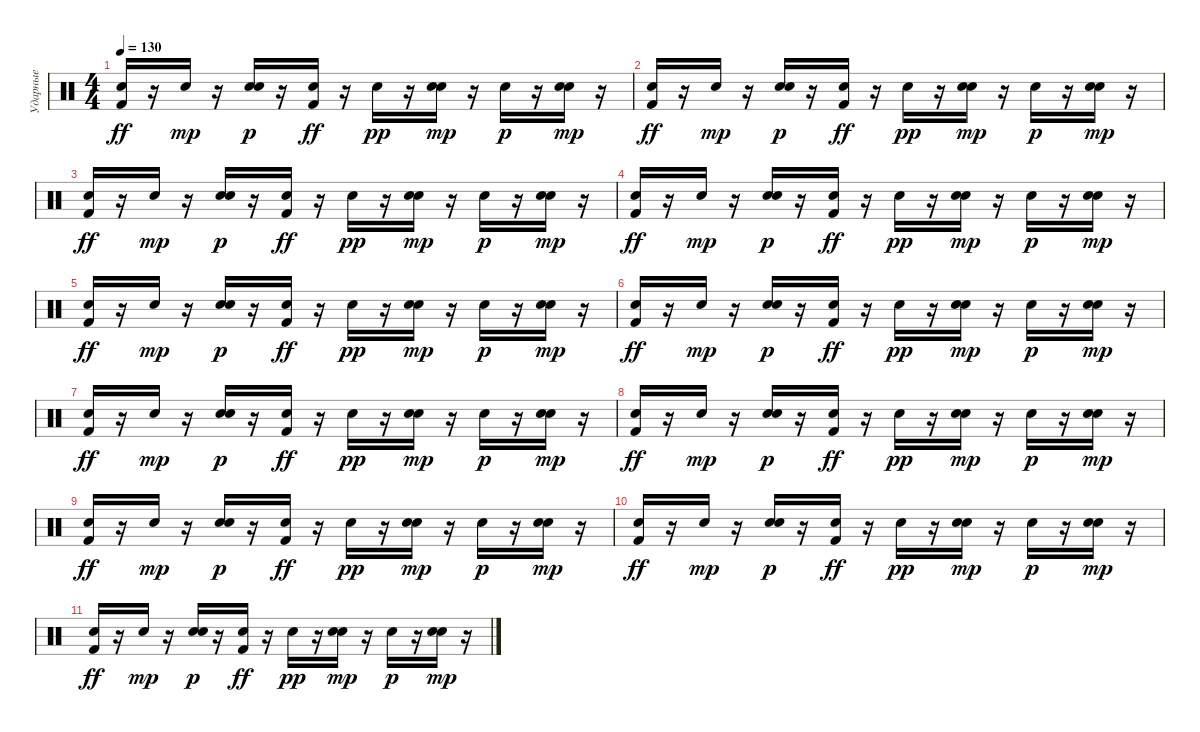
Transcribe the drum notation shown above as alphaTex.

\track ("Ударные" "Ударные") {instrument percussion}
\staff {score}
\articulation defaults
\ts (4 4)
\tempo 130
\clef neutral
\ks c
("Hand Clap (hit)" "Kick (hit) 2").16{dy ff} r.16 "Hand Clap (hit)".16{dy mp} r.16 ("Hand Clap (hit)" "Electric Snare (hit)").16{dy p} r.16 ("Hand Clap (hit)" "Kick (hit) 2").16{dy ff} r.16 "Hand Clap (hit)".16{dy pp} r.16 ("Hand Clap (hit)" "Electric Snare (hit)").16{dy mp} r.16 "Hand Clap (hit)".16{dy p} r.16 ("Hand Clap (hit)" "Electric Snare (hit)").16{dy mp} r.16 |
("Hand Clap (hit)" "Kick (hit) 2").16{dy ff} r.16 "Hand Clap (hit)".16{dy mp} r.16 ("Hand Clap (hit)" "Electric Snare (hit)").16{dy p} r.16 ("Hand Clap (hit)" "Kick (hit) 2").16{dy ff} r.16 "Hand Clap (hit)".16{dy pp} r.16 ("Hand Clap (hit)" "Electric Snare (hit)").16{dy mp} r.16 "Hand Clap (hit)".16{dy p} r.16 ("Hand Clap (hit)" "Electric Snare (hit)").16{dy mp} r.16 |
("Hand Clap (hit)" "Kick (hit) 2").16{dy ff} r.16 "Hand Clap (hit)".16{dy mp} r.16 ("Hand Clap (hit)" "Electric Snare (hit)").16{dy p} r.16 ("Hand Clap (hit)" "Kick (hit) 2").16{dy ff} r.16 "Hand Clap (hit)".16{dy pp} r.16 ("Hand Clap (hit)" "Electric Snare (hit)").16{dy mp} r.16 "Hand Clap (hit)".16{dy p} r.16 ("Hand Clap (hit)" "Electric Snare (hit)").16{dy mp} r.16 |
("Hand Clap (hit)" "Kick (hit) 2").16{dy ff} r.16 "Hand Clap (hit)".16{dy mp} r.16 ("Hand Clap (hit)" "Electric Snare (hit)").16{dy p} r.16 ("Hand Clap (hit)" "Kick (hit) 2").16{dy ff} r.16 "Hand Clap (hit)".16{dy pp} r.16 ("Hand Clap (hit)" "Electric Snare (hit)").16{dy mp} r.16 "Hand Clap (hit)".16{dy p} r.16 ("Hand Clap (hit)" "Electric Snare (hit)").16{dy mp} r.16 |
("Hand Clap (hit)" "Kick (hit) 2").16{dy ff} r.16 "Hand Clap (hit)".16{dy mp} r.16 ("Hand Clap (hit)" "Electric Snare (hit)").16{dy p} r.16 ("Hand Clap (hit)" "Kick (hit) 2").16{dy ff} r.16 "Hand Clap (hit)".16{dy pp} r.16 ("Hand Clap (hit)" "Electric Snare (hit)").16{dy mp} r.16 "Hand Clap (hit)".16{dy p} r.16 ("Hand Clap (hit)" "Electric Snare (hit)").16{dy mp} r.16 |
("Hand Clap (hit)" "Kick (hit) 2").16{dy ff} r.16 "Hand Clap (hit)".16{dy mp} r.16 ("Hand Clap (hit)" "Electric Snare (hit)").16{dy p} r.16 ("Hand Clap (hit)" "Kick (hit) 2").16{dy ff} r.16 "Hand Clap (hit)".16{dy pp} r.16 ("Hand Clap (hit)" "Electric Snare (hit)").16{dy mp} r.16 "Hand Clap (hit)".16{dy p} r.16 ("Hand Clap (hit)" "Electric Snare (hit)").16{dy mp} r.16 |
("Hand Clap (hit)" "Kick (hit) 2").16{dy ff} r.16 "Hand Clap (hit)".16{dy mp} r.16 ("Hand Clap (hit)" "Electric Snare (hit)").16{dy p} r.16 ("Hand Clap (hit)" "Kick (hit) 2").16{dy ff} r.16 "Hand Clap (hit)".16{dy pp} r.16 ("Hand Clap (hit)" "Electric Snare (hit)").16{dy mp} r.16 "Hand Clap (hit)".16{dy p} r.16 ("Hand Clap (hit)" "Electric Snare (hit)").16{dy mp} r.16 |
("Hand Clap (hit)" "Kick (hit) 2").16{dy ff} r.16 "Hand Clap (hit)".16{dy mp} r.16 ("Hand Clap (hit)" "Electric Snare (hit)").16{dy p} r.16 ("Hand Clap (hit)" "Kick (hit) 2").16{dy ff} r.16 "Hand Clap (hit)".16{dy pp} r.16 ("Hand Clap (hit)" "Electric Snare (hit)").16{dy mp} r.16 "Hand Clap (hit)".16{dy p} r.16 ("Hand Clap (hit)" "Electric Snare (hit)").16{dy mp} r.16 |
("Hand Clap (hit)" "Kick (hit) 2").16{dy ff} r.16 "Hand Clap (hit)".16{dy mp} r.16 ("Hand Clap (hit)" "Electric Snare (hit)").16{dy p} r.16 ("Hand Clap (hit)" "Kick (hit) 2").16{dy ff} r.16 "Hand Clap (hit)".16{dy pp} r.16 ("Hand Clap (hit)" "Electric Snare (hit)").16{dy mp} r.16 "Hand Clap (hit)".16{dy p} r.16 ("Hand Clap (hit)" "Electric Snare (hit)").16{dy mp} r.16 |
("Hand Clap (hit)" "Kick (hit) 2").16{dy ff} r.16 "Hand Clap (hit)".16{dy mp} r.16 ("Hand Clap (hit)" "Electric Snare (hit)").16{dy p} r.16 ("Hand Clap (hit)" "Kick (hit) 2").16{dy ff} r.16 "Hand Clap (hit)".16{dy pp} r.16 ("Hand Clap (hit)" "Electric Snare (hit)").16{dy mp} r.16 "Hand Clap (hit)".16{dy p} r.16 ("Hand Clap (hit)" "Electric Snare (hit)").16{dy mp} r.16 |
("Hand Clap (hit)" "Kick (hit) 2").16{dy ff} r.16 "Hand Clap (hit)".16{dy mp} r.16 ("Hand Clap (hit)" "Electric Snare (hit)").16{dy p} r.16 ("Hand Clap (hit)" "Kick (hit) 2").16{dy ff} r.16 "Hand Clap (hit)".16{dy pp} r.16 ("Hand Clap (hit)" "Electric Snare (hit)").16{dy mp} r.16 "Hand Clap (hit)".16{dy p} r.16 ("Hand Clap (hit)" "Electric Snare (hit)").16{dy mp} r.16
